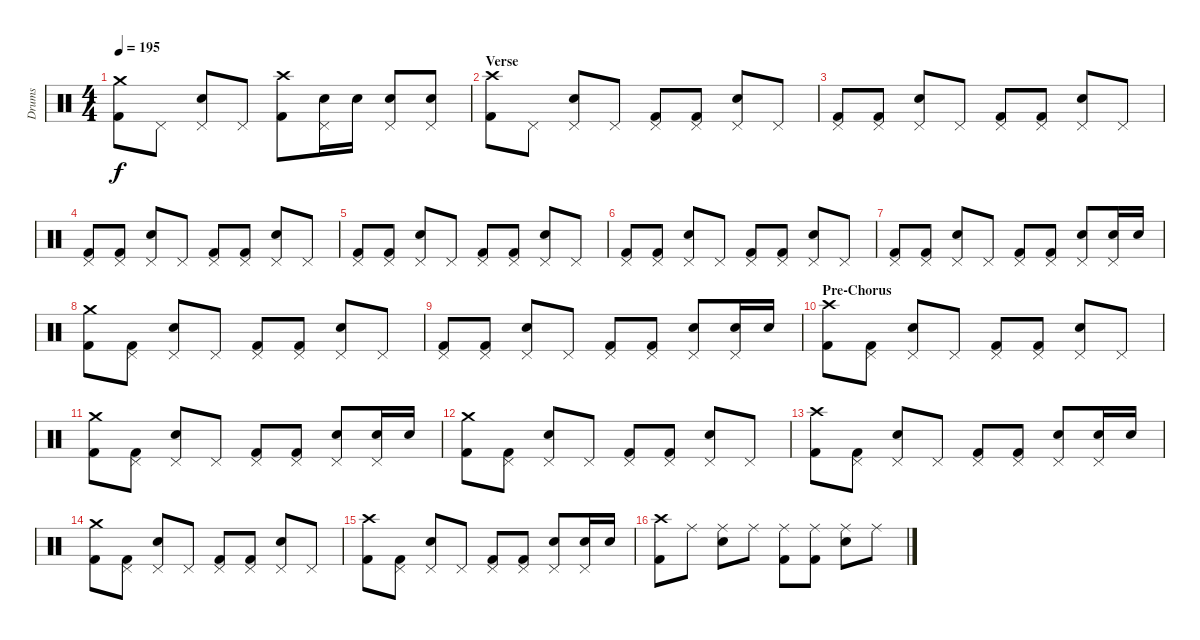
\track ("Drums" "Drums") {instrument percussion}
\staff {score}
\articulation defaults
\ts (4 4)
\tempo 195
\clef neutral
\ks c
("Crash medium (hit)" "Kick (hit) 2").8{dy f} "Pedal Hi-Hat (hit)".8 ("Pedal Hi-Hat (hit)" "Electric Snare (hit)").8 "Pedal Hi-Hat (hit)".8 ("Crash high (hit)" "Kick (hit) 2").8 ("Pedal Hi-Hat (hit)" "Electric Snare (hit)").16 "Electric Snare (hit)".16 ("Pedal Hi-Hat (hit)" "Electric Snare (hit)").8 ("Pedal Hi-Hat (hit)" "Electric Snare (hit)").8 |
\section ("" "Verse")
("Crash high (hit)" "Kick (hit) 2").8 "Pedal Hi-Hat (hit)".8 ("Pedal Hi-Hat (hit)" "Electric Snare (hit)").8 "Pedal Hi-Hat (hit)".8 ("Pedal Hi-Hat (hit)" "Kick (hit) 2").8 ("Pedal Hi-Hat (hit)" "Kick (hit) 2").8 ("Pedal Hi-Hat (hit)" "Electric Snare (hit)").8 "Pedal Hi-Hat (hit)".8 |
("Pedal Hi-Hat (hit)" "Kick (hit) 2").8 ("Pedal Hi-Hat (hit)" "Kick (hit) 2").8 ("Pedal Hi-Hat (hit)" "Electric Snare (hit)").8 "Pedal Hi-Hat (hit)".8 ("Pedal Hi-Hat (hit)" "Kick (hit) 2").8 ("Pedal Hi-Hat (hit)" "Kick (hit) 2").8 ("Pedal Hi-Hat (hit)" "Electric Snare (hit)").8 "Pedal Hi-Hat (hit)".8 |
("Pedal Hi-Hat (hit)" "Kick (hit) 2").8 ("Pedal Hi-Hat (hit)" "Kick (hit) 2").8 ("Pedal Hi-Hat (hit)" "Electric Snare (hit)").8 "Pedal Hi-Hat (hit)".8 ("Pedal Hi-Hat (hit)" "Kick (hit) 2").8 ("Pedal Hi-Hat (hit)" "Kick (hit) 2").8 ("Pedal Hi-Hat (hit)" "Electric Snare (hit)").8 "Pedal Hi-Hat (hit)".8 |
("Pedal Hi-Hat (hit)" "Kick (hit) 2").8 ("Pedal Hi-Hat (hit)" "Kick (hit) 2").8 ("Pedal Hi-Hat (hit)" "Electric Snare (hit)").8 "Pedal Hi-Hat (hit)".8 ("Pedal Hi-Hat (hit)" "Kick (hit) 2").8 ("Pedal Hi-Hat (hit)" "Kick (hit) 2").8 ("Pedal Hi-Hat (hit)" "Electric Snare (hit)").8 "Pedal Hi-Hat (hit)".8 |
("Pedal Hi-Hat (hit)" "Kick (hit) 2").8 ("Pedal Hi-Hat (hit)" "Kick (hit) 2").8 ("Pedal Hi-Hat (hit)" "Electric Snare (hit)").8 "Pedal Hi-Hat (hit)".8 ("Pedal Hi-Hat (hit)" "Kick (hit) 2").8 ("Pedal Hi-Hat (hit)" "Kick (hit) 2").8 ("Pedal Hi-Hat (hit)" "Electric Snare (hit)").8 "Pedal Hi-Hat (hit)".8 |
("Pedal Hi-Hat (hit)" "Kick (hit) 2").8 ("Pedal Hi-Hat (hit)" "Kick (hit) 2").8 ("Pedal Hi-Hat (hit)" "Electric Snare (hit)").8 "Pedal Hi-Hat (hit)".8 ("Pedal Hi-Hat (hit)" "Kick (hit) 2").8 ("Pedal Hi-Hat (hit)" "Kick (hit) 2").8 ("Pedal Hi-Hat (hit)" "Electric Snare (hit)").8 ("Pedal Hi-Hat (hit)" "Electric Snare (hit)").16 "Electric Snare (hit)".16 |
("Crash medium (hit)" "Kick (hit) 2").8 ("Pedal Hi-Hat (hit)" "Kick (hit) 2").8 ("Pedal Hi-Hat (hit)" "Electric Snare (hit)").8 "Pedal Hi-Hat (hit)".8 ("Pedal Hi-Hat (hit)" "Kick (hit) 2").8 ("Pedal Hi-Hat (hit)" "Kick (hit) 2").8 ("Pedal Hi-Hat (hit)" "Electric Snare (hit)").8 "Pedal Hi-Hat (hit)".8 |
("Pedal Hi-Hat (hit)" "Kick (hit) 2").8 ("Pedal Hi-Hat (hit)" "Kick (hit) 2").8 ("Pedal Hi-Hat (hit)" "Electric Snare (hit)").8 "Pedal Hi-Hat (hit)".8 ("Pedal Hi-Hat (hit)" "Kick (hit) 2").8 ("Pedal Hi-Hat (hit)" "Kick (hit) 2").8 ("Pedal Hi-Hat (hit)" "Electric Snare (hit)").8 ("Pedal Hi-Hat (hit)" "Electric Snare (hit)").16 "Electric Snare (hit)".16 |
\section ("" "Pre-Chorus")
("Crash high (hit)" "Kick (hit) 2").8 ("Pedal Hi-Hat (hit)" "Kick (hit) 2").8 ("Pedal Hi-Hat (hit)" "Electric Snare (hit)").8 "Pedal Hi-Hat (hit)".8 ("Pedal Hi-Hat (hit)" "Kick (hit) 2").8 ("Pedal Hi-Hat (hit)" "Kick (hit) 2").8 ("Pedal Hi-Hat (hit)" "Electric Snare (hit)").8 "Pedal Hi-Hat (hit)".8 |
("Crash medium (hit)" "Kick (hit) 2").8 ("Pedal Hi-Hat (hit)" "Kick (hit) 2").8 ("Pedal Hi-Hat (hit)" "Electric Snare (hit)").8 "Pedal Hi-Hat (hit)".8 ("Pedal Hi-Hat (hit)" "Kick (hit) 2").8 ("Pedal Hi-Hat (hit)" "Kick (hit) 2").8 ("Pedal Hi-Hat (hit)" "Electric Snare (hit)").8 ("Pedal Hi-Hat (hit)" "Electric Snare (hit)").16 "Electric Snare (hit)".16 |
("Crash medium (hit)" "Kick (hit) 2").8 ("Pedal Hi-Hat (hit)" "Kick (hit) 2").8 ("Pedal Hi-Hat (hit)" "Electric Snare (hit)").8 "Pedal Hi-Hat (hit)".8 ("Pedal Hi-Hat (hit)" "Kick (hit) 2").8 ("Pedal Hi-Hat (hit)" "Kick (hit) 2").8 ("Pedal Hi-Hat (hit)" "Electric Snare (hit)").8 "Pedal Hi-Hat (hit)".8 |
("Crash high (hit)" "Kick (hit) 2").8 ("Pedal Hi-Hat (hit)" "Kick (hit) 2").8 ("Pedal Hi-Hat (hit)" "Electric Snare (hit)").8 "Pedal Hi-Hat (hit)".8 ("Pedal Hi-Hat (hit)" "Kick (hit) 2").8 ("Pedal Hi-Hat (hit)" "Kick (hit) 2").8 ("Pedal Hi-Hat (hit)" "Electric Snare (hit)").8 ("Pedal Hi-Hat (hit)" "Electric Snare (hit)").16 "Electric Snare (hit)".16 |
("Crash medium (hit)" "Kick (hit) 2").8 ("Pedal Hi-Hat (hit)" "Kick (hit) 2").8 ("Pedal Hi-Hat (hit)" "Electric Snare (hit)").8 "Pedal Hi-Hat (hit)".8 ("Pedal Hi-Hat (hit)" "Kick (hit) 2").8 ("Pedal Hi-Hat (hit)" "Kick (hit) 2").8 ("Pedal Hi-Hat (hit)" "Electric Snare (hit)").8 "Pedal Hi-Hat (hit)".8 |
("Crash high (hit)" "Kick (hit) 2").8 ("Pedal Hi-Hat (hit)" "Kick (hit) 2").8 ("Pedal Hi-Hat (hit)" "Electric Snare (hit)").8 "Pedal Hi-Hat (hit)".8 ("Pedal Hi-Hat (hit)" "Kick (hit) 2").8 ("Pedal Hi-Hat (hit)" "Kick (hit) 2").8 ("Pedal Hi-Hat (hit)" "Electric Snare (hit)").8 ("Pedal Hi-Hat (hit)" "Electric Snare (hit)").16 "Electric Snare (hit)".16 |
("Crash high (hit)" "Kick (hit) 2").8 "Ride (middle)".8 ("Ride (middle)" "Electric Snare (hit)").8 "Ride (middle)".8 ("Ride (middle)" "Kick (hit) 2").8 ("Ride (middle)" "Kick (hit) 2").8 ("Ride (middle)" "Electric Snare (hit)").8 "Ride (middle)".8
